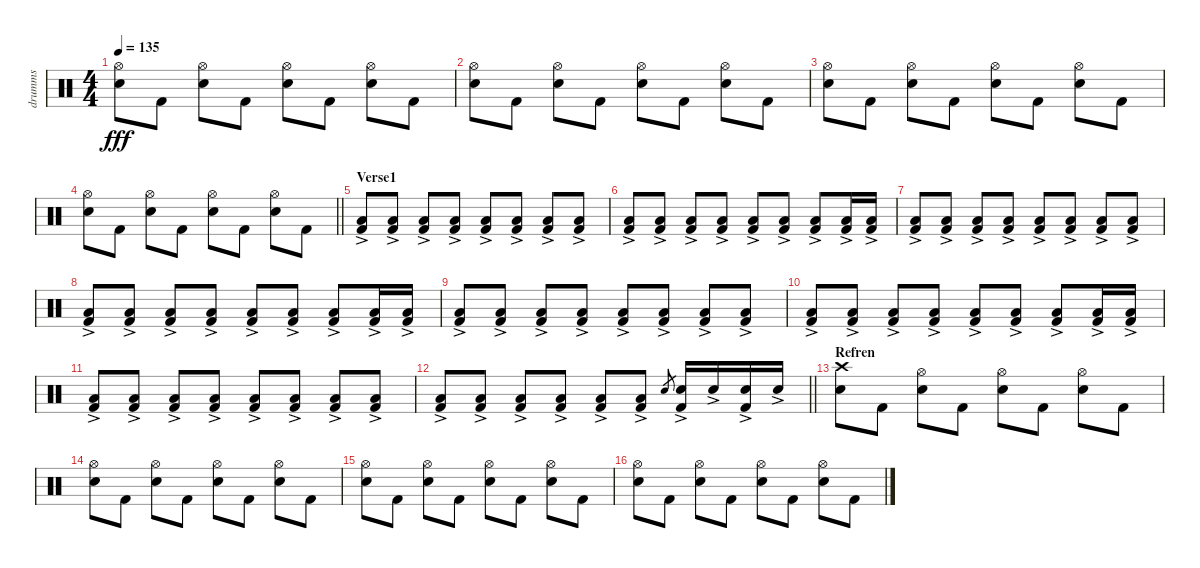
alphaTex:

\track ("drumms" "drumms") {instrument percussion}
\staff
\articulation defaults
\ts (4 4)
\tempo 135
\clef neutral
\ks c
("Hi-Hat (open)" "Snare (hit) 2").8{dy fff} "Kick (hit) 2".8 ("Hi-Hat (open)" "Snare (hit) 2").8 "Kick (hit) 2".8 ("Hi-Hat (open)" "Snare (hit) 2").8 "Kick (hit) 2".8 ("Hi-Hat (open)" "Snare (hit) 2").8 "Kick (hit) 2".8 |
("Hi-Hat (open)" "Snare (hit) 2").8 "Kick (hit) 2".8 ("Hi-Hat (open)" "Snare (hit) 2").8 "Kick (hit) 2".8 ("Hi-Hat (open)" "Snare (hit) 2").8 "Kick (hit) 2".8 ("Hi-Hat (open)" "Snare (hit) 2").8 "Kick (hit) 2".8 |
("Hi-Hat (open)" "Snare (hit) 2").8 "Kick (hit) 2".8 ("Hi-Hat (open)" "Snare (hit) 2").8 "Kick (hit) 2".8 ("Hi-Hat (open)" "Snare (hit) 2").8 "Kick (hit) 2".8 ("Hi-Hat (open)" "Snare (hit) 2").8 "Kick (hit) 2".8 |
\barLineRight lightlight
("Hi-Hat (open)" "Snare (hit) 2").8 "Kick (hit) 2".8 ("Hi-Hat (open)" "Snare (hit) 2").8 "Kick (hit) 2".8 ("Hi-Hat (open)" "Snare (hit) 2").8 "Kick (hit) 2".8 ("Hi-Hat (open)" "Snare (hit) 2").8 "Kick (hit) 2".8 |
\section ("" "Verse1")
("Low Tom (hit)"{ac} "Kick (hit) 2"{ac}).8 ("Low Tom (hit)"{ac} "Kick (hit) 2"{ac}).8 ("Low Tom (hit)"{ac} "Kick (hit) 2"{ac}).8 ("Low Tom (hit)"{ac} "Kick (hit) 2"{ac}).8 ("Low Tom (hit)"{ac} "Kick (hit) 2"{ac}).8 ("Low Tom (hit)"{ac} "Kick (hit) 2"{ac}).8 ("Low Tom (hit)"{ac} "Kick (hit) 2"{ac}).8 ("Low Tom (hit)"{ac} "Kick (hit) 2"{ac}).8 |
("Low Tom (hit)"{ac} "Kick (hit) 2"{ac}).8 ("Low Tom (hit)"{ac} "Kick (hit) 2"{ac}).8 ("Low Tom (hit)"{ac} "Kick (hit) 2"{ac}).8 ("Low Tom (hit)"{ac} "Kick (hit) 2"{ac}).8 ("Low Tom (hit)"{ac} "Kick (hit) 2"{ac}).8 ("Low Tom (hit)"{ac} "Kick (hit) 2"{ac}).8 ("Low Tom (hit)"{ac} "Kick (hit) 2"{ac}).8 ("Low Tom (hit)"{ac} "Kick (hit) 2"{ac}).16 ("Low Tom (hit)"{ac} "Kick (hit) 2"{ac}).16 |
("Low Tom (hit)"{ac} "Kick (hit) 2"{ac}).8 ("Low Tom (hit)"{ac} "Kick (hit) 2"{ac}).8 ("Low Tom (hit)"{ac} "Kick (hit) 2"{ac}).8 ("Low Tom (hit)"{ac} "Kick (hit) 2"{ac}).8 ("Low Tom (hit)"{ac} "Kick (hit) 2"{ac}).8 ("Low Tom (hit)"{ac} "Kick (hit) 2"{ac}).8 ("Low Tom (hit)"{ac} "Kick (hit) 2"{ac}).8 ("Low Tom (hit)"{ac} "Kick (hit) 2"{ac}).8 |
("Low Tom (hit)"{ac} "Kick (hit) 2"{ac}).8 ("Low Tom (hit)"{ac} "Kick (hit) 2"{ac}).8 ("Low Tom (hit)"{ac} "Kick (hit) 2"{ac}).8 ("Low Tom (hit)"{ac} "Kick (hit) 2"{ac}).8 ("Low Tom (hit)"{ac} "Kick (hit) 2"{ac}).8 ("Low Tom (hit)"{ac} "Kick (hit) 2"{ac}).8 ("Low Tom (hit)"{ac} "Kick (hit) 2"{ac}).8 ("Low Tom (hit)"{ac} "Kick (hit) 2"{ac}).16 ("Low Tom (hit)"{ac} "Kick (hit) 2"{ac}).16 |
("Low Tom (hit)"{ac} "Kick (hit) 2"{ac}).8 ("Low Tom (hit)"{ac} "Kick (hit) 2"{ac}).8 ("Low Tom (hit)"{ac} "Kick (hit) 2"{ac}).8 ("Low Tom (hit)"{ac} "Kick (hit) 2"{ac}).8 ("Low Tom (hit)"{ac} "Kick (hit) 2"{ac}).8 ("Low Tom (hit)"{ac} "Kick (hit) 2"{ac}).8 ("Low Tom (hit)"{ac} "Kick (hit) 2"{ac}).8 ("Low Tom (hit)"{ac} "Kick (hit) 2"{ac}).8 |
("Low Tom (hit)"{ac} "Kick (hit) 2"{ac}).8 ("Low Tom (hit)"{ac} "Kick (hit) 2"{ac}).8 ("Low Tom (hit)"{ac} "Kick (hit) 2"{ac}).8 ("Low Tom (hit)"{ac} "Kick (hit) 2"{ac}).8 ("Low Tom (hit)"{ac} "Kick (hit) 2"{ac}).8 ("Low Tom (hit)"{ac} "Kick (hit) 2"{ac}).8 ("Low Tom (hit)"{ac} "Kick (hit) 2"{ac}).8 ("Low Tom (hit)"{ac} "Kick (hit) 2"{ac}).16 ("Low Tom (hit)"{ac} "Kick (hit) 2"{ac}).16 |
("Low Tom (hit)"{ac} "Kick (hit) 2"{ac}).8 ("Low Tom (hit)"{ac} "Kick (hit) 2"{ac}).8 ("Low Tom (hit)"{ac} "Kick (hit) 2"{ac}).8 ("Low Tom (hit)"{ac} "Kick (hit) 2"{ac}).8 ("Low Tom (hit)"{ac} "Kick (hit) 2"{ac}).8 ("Low Tom (hit)"{ac} "Kick (hit) 2"{ac}).8 ("Low Tom (hit)"{ac} "Kick (hit) 2"{ac}).8 ("Low Tom (hit)"{ac} "Kick (hit) 2"{ac}).8 |
\barLineRight lightlight
("Low Tom (hit)"{ac} "Kick (hit) 2"{ac}).8 ("Low Tom (hit)"{ac} "Kick (hit) 2"{ac}).8 ("Low Tom (hit)"{ac} "Kick (hit) 2"{ac}).8 ("Low Tom (hit)"{ac} "Kick (hit) 2"{ac}).8 ("Low Tom (hit)"{ac} "Kick (hit) 2"{ac}).8 ("Low Tom (hit)"{ac} "Kick (hit) 2"{ac}).8 "Snare (hit) 2".8{gr} ("Snare (hit) 2"{ac} "Kick (hit) 2").16 "Snare (hit) 2"{ac}.16 ("Snare (hit) 2"{ac} "Kick (hit) 2").16 "Snare (hit) 2"{ac}.16 |
\section ("" "Refren")
("Crash high (hit)" "Snare (hit) 2").8 "Kick (hit) 2".8 ("Hi-Hat (open)" "Snare (hit) 2").8 "Kick (hit) 2".8 ("Hi-Hat (open)" "Snare (hit) 2").8 "Kick (hit) 2".8 ("Hi-Hat (open)" "Snare (hit) 2").8 "Kick (hit) 2".8 |
("Hi-Hat (open)" "Snare (hit) 2").8 "Kick (hit) 2".8 ("Hi-Hat (open)" "Snare (hit) 2").8 "Kick (hit) 2".8 ("Hi-Hat (open)" "Snare (hit) 2").8 "Kick (hit) 2".8 ("Hi-Hat (open)" "Snare (hit) 2").8 "Kick (hit) 2".8 |
("Hi-Hat (open)" "Snare (hit) 2").8 "Kick (hit) 2".8 ("Hi-Hat (open)" "Snare (hit) 2").8 "Kick (hit) 2".8 ("Hi-Hat (open)" "Snare (hit) 2").8 "Kick (hit) 2".8 ("Hi-Hat (open)" "Snare (hit) 2").8 "Kick (hit) 2".8 |
("Hi-Hat (open)" "Snare (hit) 2").8 "Kick (hit) 2".8 ("Hi-Hat (open)" "Snare (hit) 2").8 "Kick (hit) 2".8 ("Hi-Hat (open)" "Snare (hit) 2").8 "Kick (hit) 2".8 ("Hi-Hat (open)" "Snare (hit) 2").8 "Kick (hit) 2".8
